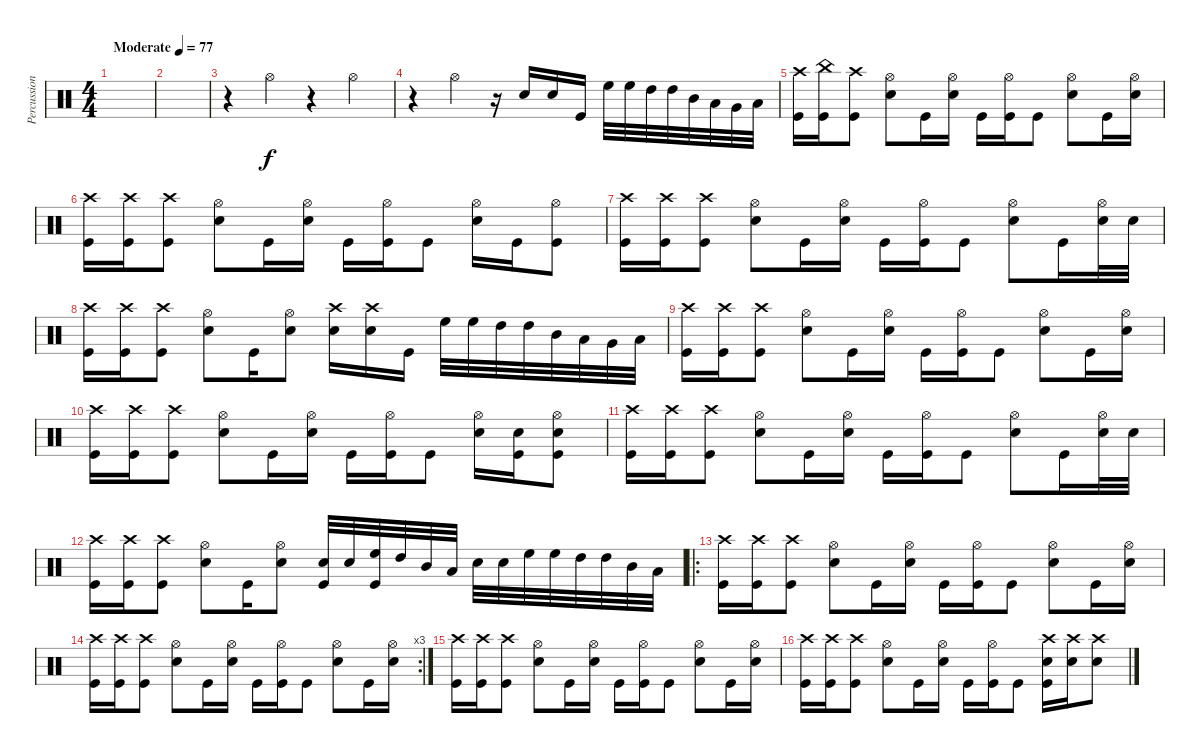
\track ("Percussion" "Percussion") {instrument percussion}
\staff {score}
\articulation defaults
\ts (4 4)
\tempo (77 "Moderate")
\clef neutral
\ks c
|
|
r.4 "Hi-Hat (open)".4 r.4 "Hi-Hat (open)".4 |
r.4 "Hi-Hat (open)".4 r.16 "Snare (hit) 2".16 "Snare (hit) 2".16 "Kick (hit)".16 "High Floor Tom (hit)".32 "High Floor Tom (hit)".32 "High Tom (hit)".32 "High Tom (hit)".32 "Mid Tom (hit)".32 "Low Tom (hit)".32 "Very Low Tom (hit)".32 "Low Floor Tom (hit)".32 |
("Crash high (hit)" "Kick (hit)").16 ("China (hit)" "Kick (hit)").16 ("Crash high (hit)" "Kick (hit)").8 ("Hi-Hat (open)" "Snare (hit) 2").8 "Kick (hit)".16 ("Hi-Hat (open)" "Snare (hit) 2").16 "Kick (hit)".16 ("Hi-Hat (open)" "Kick (hit)").16 "Kick (hit)".8 ("Hi-Hat (open)" "Snare (hit) 2").8 "Kick (hit)".16 ("Hi-Hat (open)" "Snare (hit) 2").16 |
("Crash high (hit)" "Kick (hit)").16 ("Crash high (hit)" "Kick (hit)").16 ("Crash high (hit)" "Kick (hit)").8 ("Hi-Hat (open)" "Snare (hit) 2").8 "Kick (hit)".16 ("Hi-Hat (open)" "Snare (hit) 2").16 "Kick (hit)".16 ("Hi-Hat (open)" "Kick (hit)").16 "Kick (hit)".8 ("Hi-Hat (open)" "Snare (hit) 2").16 "Kick (hit)".16 ("Hi-Hat (open)" "Kick (hit)").8 |
("Crash high (hit)" "Kick (hit)").16 ("Crash high (hit)" "Kick (hit)").16 ("Crash high (hit)" "Kick (hit)").8 ("Hi-Hat (open)" "Snare (hit) 2").8 "Kick (hit)".16 ("Hi-Hat (open)" "Snare (hit) 2").16 "Kick (hit)".16 ("Hi-Hat (open)" "Kick (hit)").16 "Kick (hit)".8 ("Hi-Hat (open)" "Snare (hit) 2").8 "Kick (hit)".16 ("Hi-Hat (open)" "Snare (hit) 2").32 "Snare (hit) 2".32 |
("Crash high (hit)" "Kick (hit)").16 ("Crash high (hit)" "Kick (hit)").16 ("Crash high (hit)" "Kick (hit)").8 ("Hi-Hat (open)" "Snare (hit) 2").8 "Kick (hit)".16 ("Hi-Hat (open)" "Snare (hit) 2").8 ("Crash high (hit)" "Snare (hit) 2").16 ("Crash high (hit)" "Snare (hit) 2").16 "Kick (hit)".16 "High Floor Tom (hit)".32 "High Floor Tom (hit)".32 "High Tom (hit)".32 "High Tom (hit)".32 "Mid Tom (hit)".32 "Low Tom (hit)".32 "Very Low Tom (hit)".32 "Low Floor Tom (hit)".32 |
("Crash high (hit)" "Kick (hit)").16 ("Crash high (hit)" "Kick (hit)").16 ("Crash high (hit)" "Kick (hit)").8 ("Hi-Hat (open)" "Snare (hit) 2").8 "Kick (hit)".16 ("Hi-Hat (open)" "Snare (hit) 2").16 "Kick (hit)".16 ("Hi-Hat (open)" "Kick (hit)").16 "Kick (hit)".8 ("Hi-Hat (open)" "Snare (hit) 2").8 "Kick (hit)".16 ("Hi-Hat (open)" "Snare (hit) 2").16 |
("Crash high (hit)" "Kick (hit)").16 ("Crash high (hit)" "Kick (hit)").16 ("Crash high (hit)" "Kick (hit)").8 ("Hi-Hat (open)" "Snare (hit) 2").8 "Kick (hit)".16 ("Hi-Hat (open)" "Snare (hit) 2").16 "Kick (hit)".16 ("Hi-Hat (open)" "Kick (hit)").16 "Kick (hit)".8 ("Hi-Hat (open)" "Snare (hit) 2").16 ("Snare (hit) 2" "Kick (hit)").16 ("Hi-Hat (open)" "Snare (hit) 2" "Kick (hit)").8 |
("Crash high (hit)" "Kick (hit)").16 ("Crash high (hit)" "Kick (hit)").16 ("Crash high (hit)" "Kick (hit)").8 ("Hi-Hat (open)" "Snare (hit) 2").8 "Kick (hit)".16 ("Hi-Hat (open)" "Snare (hit) 2").16 "Kick (hit)".16 ("Hi-Hat (open)" "Kick (hit)").16 "Kick (hit)".8 ("Hi-Hat (open)" "Snare (hit) 2").8 "Kick (hit)".16 ("Hi-Hat (open)" "Snare (hit) 2").32 "Snare (hit) 2".32 |
("Crash high (hit)" "Kick (hit)").16 ("Crash high (hit)" "Kick (hit)").16 ("Crash high (hit)" "Kick (hit)").8 ("Hi-Hat (open)" "Snare (hit) 2").8 "Kick (hit)".16 ("Hi-Hat (open)" "Snare (hit) 2").8 ("Snare (hit) 2" "Kick (hit)").32 "Snare (hit) 2".32 ("High Floor Tom (hit)" "Kick (hit)").32 "High Tom (hit)".32 "Mid Tom (hit)".32 "Low Tom (hit)".32 "Snare (hit) 2".32 "Snare (hit) 2".32 "High Floor Tom (hit)".32 "High Floor Tom (hit)".32 "High Tom (hit)".32 "High Tom (hit)".32 "Mid Tom (hit)".32 "Low Tom (hit)".32 |
\ro
("Crash high (hit)" "Kick (hit)").16 ("Crash high (hit)" "Kick (hit)").16 ("Crash high (hit)" "Kick (hit)").8 ("Hi-Hat (open)" "Snare (hit) 2").8 "Kick (hit)".16 ("Hi-Hat (open)" "Snare (hit) 2").16 "Kick (hit)".16 ("Hi-Hat (open)" "Kick (hit)").16 "Kick (hit)".8 ("Hi-Hat (open)" "Snare (hit) 2").8 "Kick (hit)".16 ("Hi-Hat (open)" "Snare (hit) 2").16 |
\rc 3
("Crash high (hit)" "Kick (hit)").16 ("Crash high (hit)" "Kick (hit)").16 ("Crash high (hit)" "Kick (hit)").8 ("Hi-Hat (open)" "Snare (hit) 2").8 "Kick (hit)".16 ("Hi-Hat (open)" "Snare (hit) 2").16 "Kick (hit)".16 ("Hi-Hat (open)" "Kick (hit)").16 "Kick (hit)".8 ("Hi-Hat (open)" "Snare (hit) 2").8 "Kick (hit)".16 ("Hi-Hat (open)" "Snare (hit) 2").16 |
("Crash high (hit)" "Kick (hit)").16 ("Crash high (hit)" "Kick (hit)").16 ("Crash high (hit)" "Kick (hit)").8 ("Hi-Hat (open)" "Snare (hit) 2").8 "Kick (hit)".16 ("Hi-Hat (open)" "Snare (hit) 2").16 "Kick (hit)".16 ("Hi-Hat (open)" "Kick (hit)").16 "Kick (hit)".8 ("Hi-Hat (open)" "Snare (hit) 2").8 "Kick (hit)".16 ("Hi-Hat (open)" "Snare (hit) 2").16 |
("Crash high (hit)" "Kick (hit)").16 ("Crash high (hit)" "Kick (hit)").16 ("Crash high (hit)" "Kick (hit)").8 ("Hi-Hat (open)" "Snare (hit) 2").8 "Kick (hit)".16 ("Hi-Hat (open)" "Snare (hit) 2").16 "Kick (hit)".16 ("Hi-Hat (open)" "Kick (hit)").16 "Kick (hit)".8 ("Crash high (hit)" "Snare (hit) 2" "Kick (hit)").16 ("Crash high (hit)" "Snare (hit) 2").16 ("Crash high (hit)" "Snare (hit) 2").8
